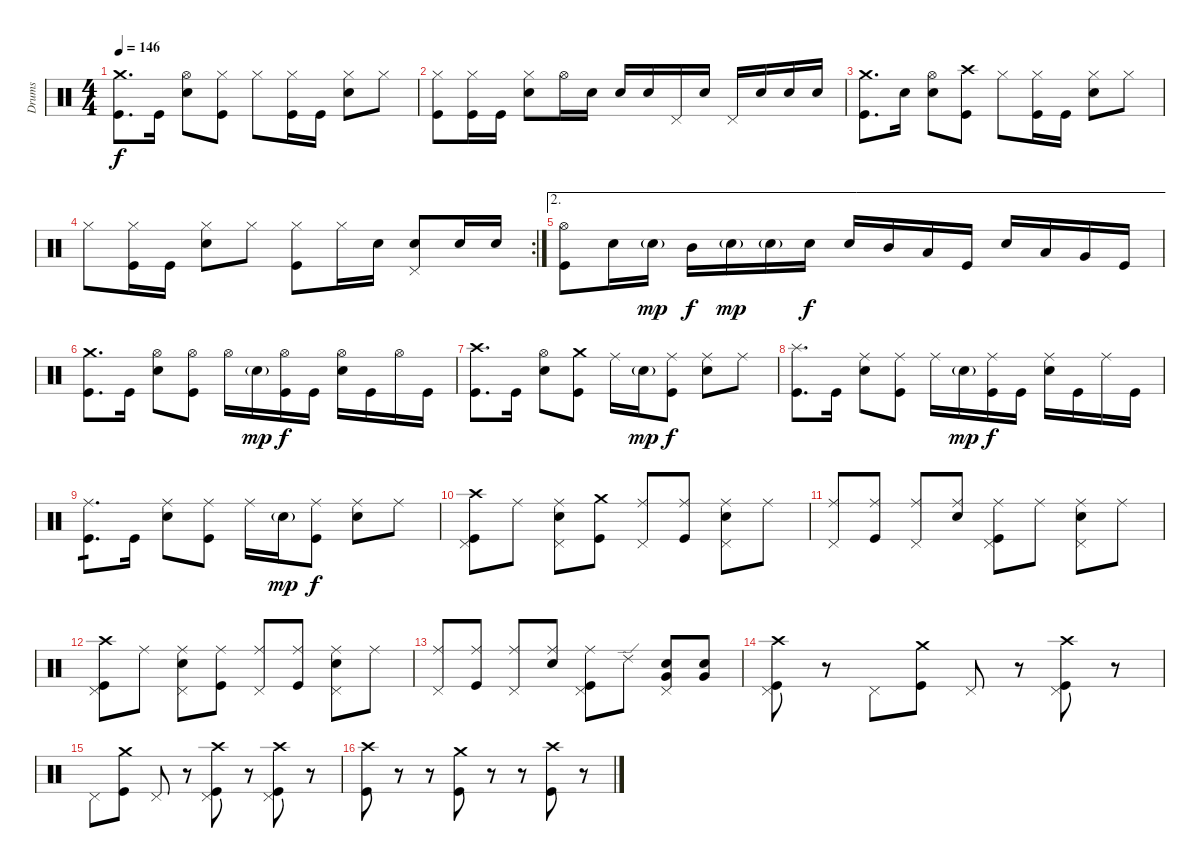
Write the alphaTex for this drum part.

\track ("Drums" "Drums") {instrument percussion}
\staff {score}
\articulation defaults
\ts (4 4)
\tempo 146
\clef neutral
\ks c
("Crash medium (hit)" "Kick (hit)").8{d dy f} "Kick (hit)".16 ("Hi-Hat (open)" "Electric Snare (hit)").8 ("Hi-Hat (closed)" "Kick (hit)").8 "Hi-Hat (closed)".8 ("Hi-Hat (closed)" "Kick (hit)").16 "Kick (hit)".16 ("Hi-Hat (closed)" "Electric Snare (hit)").8 "Hi-Hat (closed)".8 |
("Hi-Hat (closed)" "Kick (hit)").8 ("Hi-Hat (closed)" "Kick (hit)").16 "Kick (hit)".16 ("Hi-Hat (closed)" "Electric Snare (hit)").8 "Hi-Hat (open)".16 "Electric Snare (hit)".16 "Electric Snare (hit)".16 "Electric Snare (hit)".16 "Pedal Hi-Hat (hit)".16 "Electric Snare (hit)".16 "Pedal Hi-Hat (hit)".16 "Electric Snare (hit)".16 "Electric Snare (hit)".16 "Electric Snare (hit)".16 |
("Crash medium (hit)" "Kick (hit)").8{d} "Electric Snare (hit)".16 ("Hi-Hat (open)" "Electric Snare (hit)").8 ("Crash high (hit)" "Kick (hit)").8 "Hi-Hat (closed)".8 ("Hi-Hat (closed)" "Kick (hit)").16 "Kick (hit)".16 ("Hi-Hat (closed)" "Electric Snare (hit)").8 "Hi-Hat (closed)".8 |
\rc 2 "Hi-Hat (closed)".8
("Hi-Hat (closed)" "Kick (hit)").16 "Kick (hit)".16 ("Hi-Hat (closed)" "Electric Snare (hit)").8 "Hi-Hat (closed)".8 ("Hi-Hat (closed)" "Kick (hit)").8 "Hi-Hat (closed)".16 "Electric Snare (hit)".16 ("Pedal Hi-Hat (hit)" "Electric Snare (hit)").8 "Electric Snare (hit)".16 "Electric Snare (hit)".16 |
\ae 2
("Hi-Hat (open)" "Kick (hit)").8 "Electric Snare (hit)".16 "Electric Snare (hit)"{g}.16{dy mp} "Mid Tom (hit)".16{dy f} "Electric Snare (hit)"{g}.16{dy mp} "Electric Snare (hit)"{g}.16 "Electric Snare (hit)".16{dy f} "Electric Snare (hit)".16 "Mid Tom (hit)".16 "Low Tom (hit)".16 "Kick (hit)".16 "Electric Snare (hit)".16 "Low Tom (hit)".16 "Very Low Tom (hit)".16 "Kick (hit)".16 |
("Crash medium (hit)" "Kick (hit)").8{d} "Kick (hit)".16 ("Hi-Hat (open)" "Electric Snare (hit)").8 ("Hi-Hat (open)" "Kick (hit)").8 "Hi-Hat (open)".16 "Electric Snare (hit)"{g}.16{dy mp} ("Hi-Hat (open)" "Kick (hit)").16{dy f} "Kick (hit)".16 ("Hi-Hat (open)" "Electric Snare (hit)").16 "Kick (hit)".16 "Hi-Hat (open)".16 "Kick (hit)".16 |
("Crash high (hit)" "Kick (hit)").8{d} "Kick (hit)".16 ("Hi-Hat (open)" "Electric Snare (hit)").8 ("Crash medium (hit)" "Kick (hit)").8 "Ride (middle)".16 "Electric Snare (hit)"{g}.16{dy mp} ("Ride (middle)" "Kick (hit)").8{dy f} ("Ride (middle)" "Electric Snare (hit)").8 "Ride (middle)".8 |
("Splash (hit)" "Kick (hit)").8{d} "Kick (hit)".16 ("Ride (middle)" "Electric Snare (hit)").8 ("Ride (middle)" "Kick (hit)").8 "Ride (middle)".16 "Electric Snare (hit)"{g}.16{dy mp} ("Ride (middle)" "Kick (hit)").16{dy f} "Kick (hit)".16 ("Ride (middle)" "Electric Snare (hit)").16 "Kick (hit)".16 "Ride (middle)".16 "Kick (hit)".16 |
("Ride (middle)" "Kick (hit)").8{d tp 1} "Kick (hit)".16 ("Ride (middle)" "Electric Snare (hit)").8 ("Ride (middle)" "Kick (hit)").8 "Ride (middle)".16 "Electric Snare (hit)"{g}.16{dy mp} ("Ride (middle)" "Kick (hit)").8{dy f} ("Ride (middle)" "Electric Snare (hit)").8 "Ride (middle)".8 |
("Crash high (hit)" "Pedal Hi-Hat (hit)" "Kick (hit)").8 "Ride (middle)".8 ("Ride (middle)" "Pedal Hi-Hat (hit)" "Electric Snare (hit)").8 ("Crash medium (hit)" "Kick (hit)").8 ("Ride (middle)" "Pedal Hi-Hat (hit)").8 ("Ride (middle)" "Kick (hit)").8 ("Ride (middle)" "Pedal Hi-Hat (hit)" "Electric Snare (hit)").8 "Ride (middle)".8 |
("Ride (middle)" "Pedal Hi-Hat (hit)").8 ("Ride (middle)" "Kick (hit)").8 ("Ride (middle)" "Pedal Hi-Hat (hit)").8 ("Ride (middle)" "Electric Snare (hit)").8 ("Ride (middle)" "Pedal Hi-Hat (hit)" "Kick (hit)").8 "Ride (middle)".8 ("Ride (middle)" "Pedal Hi-Hat (hit)" "Electric Snare (hit)").8 "Ride (middle)".8 |
("Crash high (hit)" "Pedal Hi-Hat (hit)" "Kick (hit)").8 "Ride (middle)".8 ("Ride (middle)" "Pedal Hi-Hat (hit)" "Electric Snare (hit)").8 ("Ride (middle)" "Kick (hit)").8 ("Ride (middle)" "Pedal Hi-Hat (hit)").8 ("Ride (middle)" "Kick (hit)").8 ("Ride (middle)" "Pedal Hi-Hat (hit)" "Electric Snare (hit)").8 "Ride (middle)".8 |
("Ride (middle)" "Pedal Hi-Hat (hit)").8 ("Ride (middle)" "Kick (hit)").8 ("Ride (middle)" "Pedal Hi-Hat (hit)").8 ("Ride (middle)" "Electric Snare (hit)").8 ("Ride (middle)" "Pedal Hi-Hat (hit)" "Kick (hit)").8 "Ride (edge) 2".8 ("Electric Snare (hit)" "Very Low Tom (hit)" "Pedal Hi-Hat (hit)").8 ("Electric Snare (hit)" "Very Low Tom (hit)").8 |
("Crash high (hit)" "Pedal Hi-Hat (hit)" "Kick (hit)").8 r.8 "Pedal Hi-Hat (hit)".8 ("Crash medium (hit)" "Kick (hit)").8 "Pedal Hi-Hat (hit)".8 r.8 ("Crash high (hit)" "Pedal Hi-Hat (hit)" "Kick (hit)").8 r.8 |
"Pedal Hi-Hat (hit)".8 ("Crash medium (hit)" "Kick (hit)").8 "Pedal Hi-Hat (hit)".8 r.8 ("Crash high (hit)" "Pedal Hi-Hat (hit)" "Kick (hit)").8 r.8 ("Crash high (hit)" "Pedal Hi-Hat (hit)" "Kick (hit)").8 r.8 |
("Crash high (hit)" "Kick (hit)").8 r.8 r.8 ("Crash medium (hit)" "Kick (hit)").8 r.8 r.8 ("Crash high (hit)" "Kick (hit)").8 r.8
